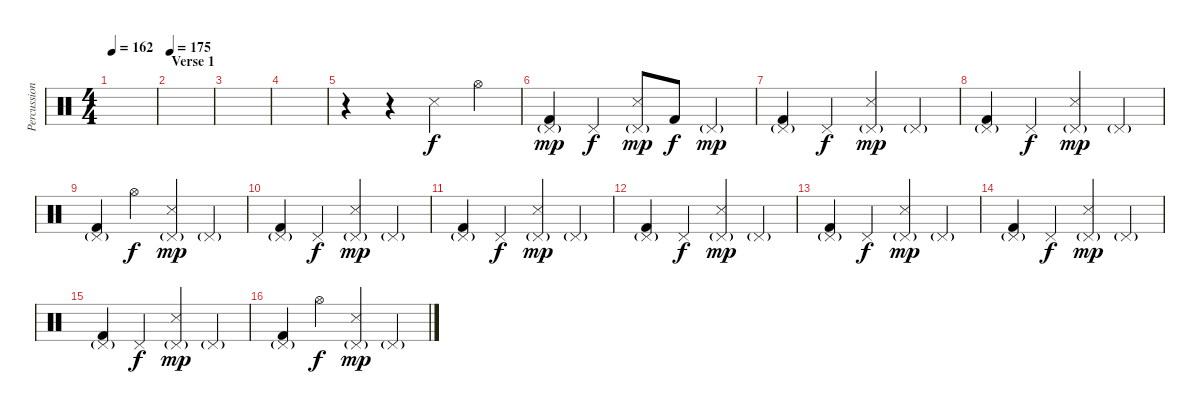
\track ("Percussion" "Percussion") {instrument percussion}
\staff {score}
\articulation defaults
\ts (4 4)
\tempo 162
\clef neutral
\ks c
|
\section ("" "Verse 1")
\tempo 175
|
|
|
r.4 r.4 "Snare (side stick) 3".4 "Hi-Hat (open)".4{dy f} |
("Pedal Hi-Hat (hit)"{g} "Kick (hit) 2").4{dy mp} "Pedal Hi-Hat (hit)".4{dy f} ("Pedal Hi-Hat (hit)"{g} "Snare (side stick) 3").8{dy mp} "Kick (hit) 2".8{dy f} "Pedal Hi-Hat (hit)"{g}.4{dy mp} |
("Pedal Hi-Hat (hit)"{g} "Kick (hit) 2").4 "Pedal Hi-Hat (hit)".4{dy f} ("Pedal Hi-Hat (hit)"{g} "Snare (side stick) 3").4{dy mp} "Pedal Hi-Hat (hit)"{g}.4 |
("Pedal Hi-Hat (hit)"{g} "Kick (hit) 2").4 "Pedal Hi-Hat (hit)".4{dy f} ("Pedal Hi-Hat (hit)"{g} "Snare (side stick) 3").4{dy mp} "Pedal Hi-Hat (hit)"{g}.4 |
("Pedal Hi-Hat (hit)"{g} "Kick (hit) 2").4 "Hi-Hat (open)".4{dy f} ("Pedal Hi-Hat (hit)"{g} "Snare (side stick) 3").4{dy mp} "Pedal Hi-Hat (hit)"{g}.4 |
("Pedal Hi-Hat (hit)"{g} "Kick (hit) 2").4 "Pedal Hi-Hat (hit)".4{dy f} ("Pedal Hi-Hat (hit)"{g} "Snare (side stick) 3").4{dy mp} "Pedal Hi-Hat (hit)"{g}.4 |
("Pedal Hi-Hat (hit)"{g} "Kick (hit) 2").4 "Pedal Hi-Hat (hit)".4{dy f} ("Pedal Hi-Hat (hit)"{g} "Snare (side stick) 3").4{dy mp} "Pedal Hi-Hat (hit)"{g}.4 |
("Pedal Hi-Hat (hit)"{g} "Kick (hit) 2").4 "Pedal Hi-Hat (hit)".4{dy f} ("Pedal Hi-Hat (hit)"{g} "Snare (side stick) 3").4{dy mp} "Pedal Hi-Hat (hit)"{g}.4 |
("Pedal Hi-Hat (hit)"{g} "Kick (hit) 2").4 "Pedal Hi-Hat (hit)".4{dy f} ("Pedal Hi-Hat (hit)"{g} "Snare (side stick) 3").4{dy mp} "Pedal Hi-Hat (hit)"{g}.4 |
("Pedal Hi-Hat (hit)"{g} "Kick (hit) 2").4 "Pedal Hi-Hat (hit)".4{dy f} ("Pedal Hi-Hat (hit)"{g} "Snare (side stick) 3").4{dy mp} "Pedal Hi-Hat (hit)"{g}.4 |
("Pedal Hi-Hat (hit)"{g} "Kick (hit) 2").4 "Pedal Hi-Hat (hit)".4{dy f} ("Pedal Hi-Hat (hit)"{g} "Snare (side stick) 3").4{dy mp} "Pedal Hi-Hat (hit)"{g}.4 |
("Pedal Hi-Hat (hit)"{g} "Kick (hit) 2").4 "Hi-Hat (open)".4{dy f} ("Pedal Hi-Hat (hit)"{g} "Snare (side stick) 3").4{dy mp} "Pedal Hi-Hat (hit)"{g}.4
